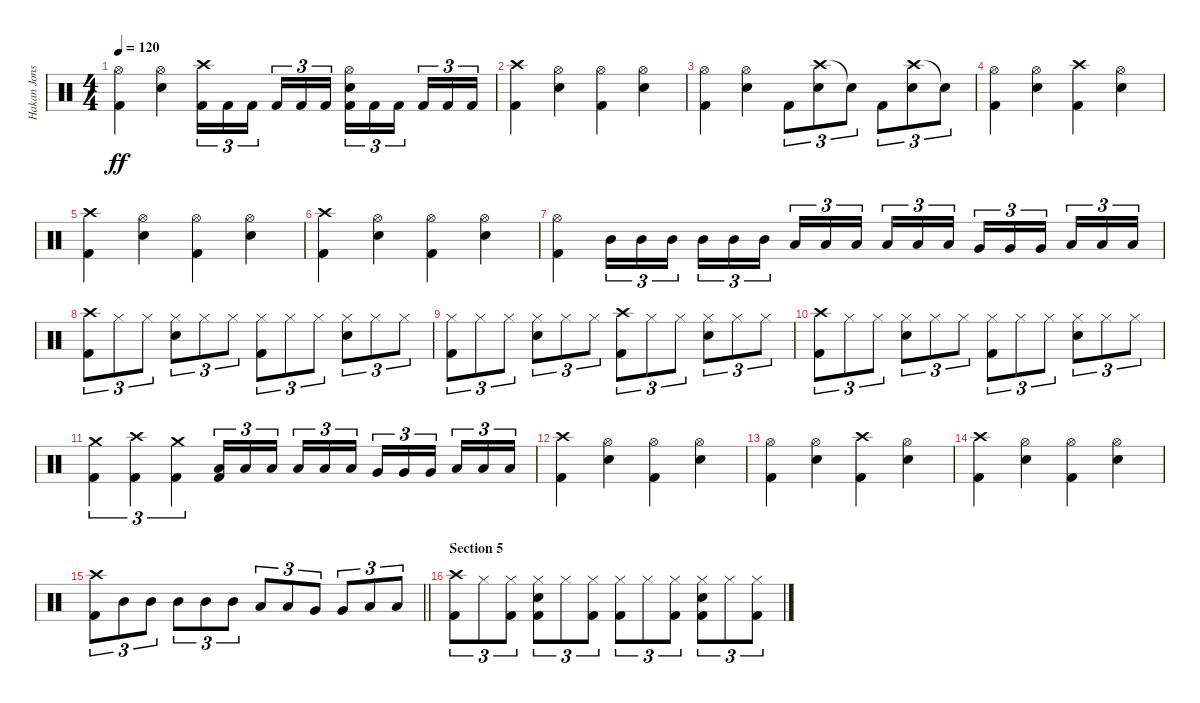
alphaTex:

\track ("Hakan Jonsson" "Hakan Jons") {instrument percussion}
\staff {score}
\articulation defaults
\ts (4 4)
\tempo 120
\clef neutral
\ks c
("Hi-Hat (open)" "Kick (hit) 2").4{dy ff} ("Hi-Hat (open)" "Electric Snare (hit)").4 ("Crash high (hit)" "Kick (hit) 2").16{tu (3 2)} "Kick (hit) 2".16{tu (3 2)} "Kick (hit) 2".16{tu (3 2) beam splitsecondary} "Kick (hit) 2".16{tu (3 2)} "Kick (hit) 2".16{tu (3 2)} "Kick (hit) 2".16{tu (3 2)} ("Hi-Hat (open)" "Electric Snare (hit)" "Kick (hit) 2").16{tu (3 2)} "Kick (hit) 2".16{tu (3 2)} "Kick (hit) 2".16{tu (3 2) beam splitsecondary} "Kick (hit) 2".16{tu (3 2)} "Kick (hit) 2".16{tu (3 2)} "Kick (hit) 2".16{tu (3 2)} |
("Crash high (hit)" "Kick (hit) 2").4 ("Hi-Hat (open)" "Electric Snare (hit)").4 ("Hi-Hat (open)" "Kick (hit) 2").4 ("Hi-Hat (open)" "Electric Snare (hit)").4 |
("Hi-Hat (open)" "Kick (hit) 2").4 ("Hi-Hat (open)" "Electric Snare (hit)").4 "Kick (hit) 2".8{tu (3 2)} ("Crash high (hit)" "Electric Snare (hit)").8{tu (3 2)} "Snare (hit)"{t}.8{tu (3 2)} "Kick (hit) 2".8{tu (3 2)} ("Crash high (hit)" "Electric Snare (hit)").8{tu (3 2)} "Snare (hit)"{t}.8{tu (3 2)} |
("Hi-Hat (open)" "Kick (hit) 2").4 ("Hi-Hat (open)" "Electric Snare (hit)").4 ("Crash high (hit)" "Kick (hit) 2").4 ("Hi-Hat (open)" "Electric Snare (hit)").4 |
("Crash high (hit)" "Kick (hit) 2").4 ("Hi-Hat (open)" "Electric Snare (hit)").4 ("Hi-Hat (open)" "Kick (hit) 2").4 ("Hi-Hat (open)" "Electric Snare (hit)").4 |
("Crash high (hit)" "Kick (hit) 2").4 ("Hi-Hat (open)" "Electric Snare (hit)").4 ("Hi-Hat (open)" "Kick (hit) 2").4 ("Hi-Hat (open)" "Electric Snare (hit)").4 |
("Hi-Hat (open)" "Kick (hit) 2").4 "Mid Tom (hit)".16{tu (3 2)} "Mid Tom (hit)".16{tu (3 2)} "Mid Tom (hit)".16{tu (3 2) beam splitsecondary} "Mid Tom (hit)".16{tu (3 2)} "Mid Tom (hit)".16{tu (3 2)} "Mid Tom (hit)".16{tu (3 2)} "Low Tom (hit)".16{tu (3 2)} "Low Tom (hit)".16{tu (3 2)} "Low Tom (hit)".16{tu (3 2) beam splitsecondary} "Low Tom (hit)".16{tu (3 2)} "Low Tom (hit)".16{tu (3 2)} "Low Tom (hit)".16{tu (3 2)} "Very Low Tom (hit)".16{tu (3 2)} "Very Low Tom (hit)".16{tu (3 2)} "Very Low Tom (hit)".16{tu (3 2) beam splitsecondary} "Low Floor Tom (hit)".16{tu (3 2)} "Low Floor Tom (hit)".16{tu (3 2)} "Low Floor Tom (hit)".16{tu (3 2)} |
("Crash high (hit)" "Kick (hit) 2").8{tu (3 2)} "Hi-Hat (closed)".8{tu (3 2)} "Hi-Hat (closed)".8{tu (3 2)} ("Hi-Hat (closed)" "Electric Snare (hit)").8{tu (3 2)} "Hi-Hat (closed)".8{tu (3 2)} "Hi-Hat (closed)".8{tu (3 2)} ("Hi-Hat (closed)" "Kick (hit) 2").8{tu (3 2)} "Hi-Hat (closed)".8{tu (3 2)} "Hi-Hat (closed)".8{tu (3 2)} ("Hi-Hat (closed)" "Electric Snare (hit)").8{tu (3 2)} "Hi-Hat (closed)".8{tu (3 2)} "Hi-Hat (closed)".8{tu (3 2)} |
("Hi-Hat (closed)" "Kick (hit) 2").8{tu (3 2)} "Hi-Hat (closed)".8{tu (3 2)} "Hi-Hat (closed)".8{tu (3 2)} ("Hi-Hat (closed)" "Electric Snare (hit)").8{tu (3 2)} "Hi-Hat (closed)".8{tu (3 2)} "Hi-Hat (closed)".8{tu (3 2)} ("Crash high (hit)" "Kick (hit) 2").8{tu (3 2)} "Hi-Hat (closed)".8{tu (3 2)} "Hi-Hat (closed)".8{tu (3 2)} ("Hi-Hat (closed)" "Electric Snare (hit)").8{tu (3 2)} "Hi-Hat (closed)".8{tu (3 2)} "Hi-Hat (closed)".8{tu (3 2)} |
("Crash high (hit)" "Kick (hit) 2").8{tu (3 2)} "Hi-Hat (closed)".8{tu (3 2)} "Hi-Hat (closed)".8{tu (3 2)} ("Hi-Hat (closed)" "Electric Snare (hit)").8{tu (3 2)} "Hi-Hat (closed)".8{tu (3 2)} "Hi-Hat (closed)".8{tu (3 2)} ("Hi-Hat (closed)" "Kick (hit) 2").8{tu (3 2)} "Hi-Hat (closed)".8{tu (3 2)} "Hi-Hat (closed)".8{tu (3 2)} ("Hi-Hat (closed)" "Electric Snare (hit)").8{tu (3 2)} "Hi-Hat (closed)".8{tu (3 2)} "Hi-Hat (closed)".8{tu (3 2)} |
("Crash medium (hit)" "Kick (hit) 2").4{tu (3 2)} ("Crash high (hit)" "Kick (hit) 2").4{tu (3 2)} ("Crash medium (hit)" "Kick (hit) 2").4{tu (3 2)} ("Low Tom (hit)" "Kick (hit) 2").16{tu (3 2)} "Low Tom (hit)".16{tu (3 2)} "Low Tom (hit)".16{tu (3 2) beam splitsecondary} "Low Tom (hit)".16{tu (3 2)} "Low Tom (hit)".16{tu (3 2)} "Low Tom (hit)".16{tu (3 2)} "Very Low Tom (hit)".16{tu (3 2)} "Very Low Tom (hit)".16{tu (3 2)} "Very Low Tom (hit)".16{tu (3 2) beam splitsecondary} "Low Floor Tom (hit)".16{tu (3 2)} "Low Floor Tom (hit)".16{tu (3 2)} "Low Floor Tom (hit)".16{tu (3 2)} |
("Crash high (hit)" "Kick (hit) 2").4 ("Hi-Hat (open)" "Electric Snare (hit)").4 ("Hi-Hat (open)" "Kick (hit) 2").4 ("Hi-Hat (open)" "Electric Snare (hit)").4 |
("Hi-Hat (open)" "Kick (hit) 2").4 ("Hi-Hat (open)" "Electric Snare (hit)").4 ("Crash high (hit)" "Kick (hit) 2").4 ("Hi-Hat (open)" "Electric Snare (hit)").4 |
("Crash high (hit)" "Kick (hit) 2").4 ("Hi-Hat (open)" "Electric Snare (hit)").4 ("Hi-Hat (open)" "Kick (hit) 2").4 ("Hi-Hat (open)" "Electric Snare (hit)").4 |
\barLineRight lightlight
("Crash high (hit)" "Kick (hit) 2").8{tu (3 2)} "Mid Tom (hit)".8{tu (3 2)} "Mid Tom (hit)".8{tu (3 2)} "Mid Tom (hit)".8{tu (3 2)} "Mid Tom (hit)".8{tu (3 2)} "Mid Tom (hit)".8{tu (3 2)} "Low Tom (hit)".8{tu (3 2)} "Low Tom (hit)".8{tu (3 2)} "Very Low Tom (hit)".8{tu (3 2)} "Very Low Tom (hit)".8{tu (3 2)} "Low Floor Tom (hit)".8{tu (3 2)} "Low Floor Tom (hit)".8{tu (3 2)} |
\section ("" "Section 5")
("Crash high (hit)" "Kick (hit) 2").8{tu (3 2)} "Hi-Hat (closed)".8{tu (3 2)} ("Hi-Hat (closed)" "Kick (hit) 2").8{tu (3 2)} ("Hi-Hat (closed)" "Electric Snare (hit)" "Kick (hit) 2").8{tu (3 2)} "Hi-Hat (closed)".8{tu (3 2)} ("Hi-Hat (closed)" "Kick (hit) 2").8{tu (3 2)} ("Hi-Hat (closed)" "Kick (hit) 2").8{tu (3 2)} "Hi-Hat (closed)".8{tu (3 2)} ("Hi-Hat (closed)" "Kick (hit) 2").8{tu (3 2)} ("Hi-Hat (closed)" "Electric Snare (hit)" "Kick (hit) 2").8{tu (3 2)} "Hi-Hat (closed)".8{tu (3 2)} ("Hi-Hat (closed)" "Kick (hit) 2").8{tu (3 2)}
